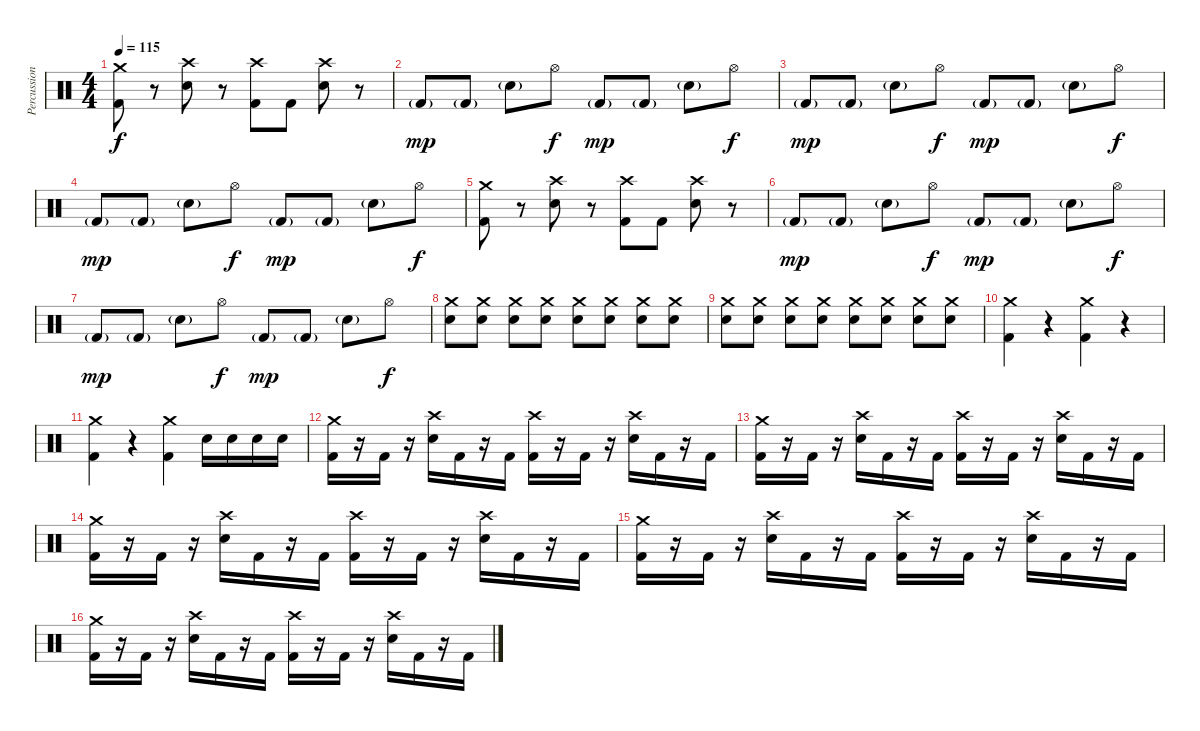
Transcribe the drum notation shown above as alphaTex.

\track ("Percussioni" "Percussion") {instrument percussion}
\staff {score}
\articulation defaults
\ts (4 4)
\tempo 115
\clef neutral
\ks c
("Crash medium (hit)" "Kick (hit) 2").8{dy f} r.8 ("Crash high (hit)" "Electric Snare (hit)").8 r.8 ("Crash high (hit)" "Kick (hit) 2").8 "Kick (hit) 2".8 ("Crash high (hit)" "Electric Snare (hit)").8 r.8 |
"Kick (hit) 2"{g}.8{dy mp} "Kick (hit) 2"{g}.8 "Electric Snare (hit)"{g}.8 "Hi-Hat (open)".8{dy f} "Kick (hit) 2"{g}.8{dy mp} "Kick (hit) 2"{g}.8 "Electric Snare (hit)"{g}.8 "Hi-Hat (open)".8{dy f} |
"Kick (hit) 2"{g}.8{dy mp} "Kick (hit) 2"{g}.8 "Electric Snare (hit)"{g}.8 "Hi-Hat (open)".8{dy f} "Kick (hit) 2"{g}.8{dy mp} "Kick (hit) 2"{g}.8 "Electric Snare (hit)"{g}.8 "Hi-Hat (open)".8{dy f} |
"Kick (hit) 2"{g}.8{dy mp} "Kick (hit) 2"{g}.8 "Electric Snare (hit)"{g}.8 "Hi-Hat (open)".8{dy f} "Kick (hit) 2"{g}.8{dy mp} "Kick (hit) 2"{g}.8 "Electric Snare (hit)"{g}.8 "Hi-Hat (open)".8{dy f} |
("Crash medium (hit)" "Kick (hit) 2").8 r.8 ("Crash high (hit)" "Electric Snare (hit)").8 r.8 ("Crash high (hit)" "Kick (hit) 2").8 "Kick (hit) 2".8 ("Crash high (hit)" "Electric Snare (hit)").8 r.8 |
"Kick (hit) 2"{g}.8{dy mp} "Kick (hit) 2"{g}.8 "Electric Snare (hit)"{g}.8 "Hi-Hat (open)".8{dy f} "Kick (hit) 2"{g}.8{dy mp} "Kick (hit) 2"{g}.8 "Electric Snare (hit)"{g}.8 "Hi-Hat (open)".8{dy f} |
"Kick (hit) 2"{g}.8{dy mp} "Kick (hit) 2"{g}.8 "Electric Snare (hit)"{g}.8 "Hi-Hat (open)".8{dy f} "Kick (hit) 2"{g}.8{dy mp} "Kick (hit) 2"{g}.8 "Electric Snare (hit)"{g}.8 "Hi-Hat (open)".8{dy f} |
("Crash medium (hit)" "Electric Snare (hit)").8{volume 6} ("Crash medium (hit)" "Electric Snare (hit)").8 ("Crash medium (hit)" "Electric Snare (hit)").8{volume 7} ("Crash medium (hit)" "Electric Snare (hit)").8 ("Crash medium (hit)" "Electric Snare (hit)").8{volume 8} ("Crash medium (hit)" "Electric Snare (hit)").8 ("Crash medium (hit)" "Electric Snare (hit)").8{volume 9} ("Crash medium (hit)" "Electric Snare (hit)").8 |
("Crash medium (hit)" "Electric Snare (hit)").8{volume 10} ("Crash medium (hit)" "Electric Snare (hit)").8 ("Crash medium (hit)" "Electric Snare (hit)").8{volume 11} ("Crash medium (hit)" "Electric Snare (hit)").8 ("Crash medium (hit)" "Electric Snare (hit)").8{volume 12} ("Crash medium (hit)" "Electric Snare (hit)").8 ("Crash medium (hit)" "Electric Snare (hit)").8{volume 13} ("Crash medium (hit)" "Electric Snare (hit)").8 |
("Crash medium (hit)" "Kick (hit) 2").4 r.4 ("Crash medium (hit)" "Kick (hit) 2").4 r.4 |
("Crash medium (hit)" "Kick (hit) 2").4 r.4 ("Crash medium (hit)" "Kick (hit) 2").4 "Electric Snare (hit)".16 "Electric Snare (hit)".16 "Electric Snare (hit)".16 "Electric Snare (hit)".16 |
("Crash medium (hit)" "Kick (hit) 2").16 r.16 "Kick (hit) 2".16 r.16 ("Crash high (hit)" "Electric Snare (hit)").16 "Kick (hit) 2".16 r.16 "Kick (hit) 2".16 ("Crash high (hit)" "Kick (hit) 2").16 r.16 "Kick (hit) 2".16 r.16 ("Crash high (hit)" "Electric Snare (hit)").16 "Kick (hit) 2".16 r.16 "Kick (hit) 2".16 |
("Crash medium (hit)" "Kick (hit) 2").16 r.16 "Kick (hit) 2".16 r.16 ("Crash high (hit)" "Electric Snare (hit)").16 "Kick (hit) 2".16 r.16 "Kick (hit) 2".16 ("Crash high (hit)" "Kick (hit) 2").16 r.16 "Kick (hit) 2".16 r.16 ("Crash high (hit)" "Electric Snare (hit)").16 "Kick (hit) 2".16 r.16 "Kick (hit) 2".16 |
("Crash medium (hit)" "Kick (hit) 2").16 r.16 "Kick (hit) 2".16 r.16 ("Crash high (hit)" "Electric Snare (hit)").16 "Kick (hit) 2".16 r.16 "Kick (hit) 2".16 ("Crash high (hit)" "Kick (hit) 2").16 r.16 "Kick (hit) 2".16 r.16 ("Crash high (hit)" "Electric Snare (hit)").16 "Kick (hit) 2".16 r.16 "Kick (hit) 2".16 |
("Crash medium (hit)" "Kick (hit) 2").16 r.16 "Kick (hit) 2".16 r.16 ("Crash high (hit)" "Electric Snare (hit)").16 "Kick (hit) 2".16 r.16 "Kick (hit) 2".16 ("Crash high (hit)" "Kick (hit) 2").16 r.16 "Kick (hit) 2".16 r.16 ("Crash high (hit)" "Electric Snare (hit)").16 "Kick (hit) 2".16 r.16 "Kick (hit) 2".16 |
("Crash medium (hit)" "Kick (hit) 2").16 r.16 "Kick (hit) 2".16 r.16 ("Crash high (hit)" "Electric Snare (hit)").16 "Kick (hit) 2".16 r.16 "Kick (hit) 2".16 ("Crash high (hit)" "Kick (hit) 2").16 r.16 "Kick (hit) 2".16 r.16 ("Crash high (hit)" "Electric Snare (hit)").16 "Kick (hit) 2".16 r.16 "Kick (hit) 2".16
